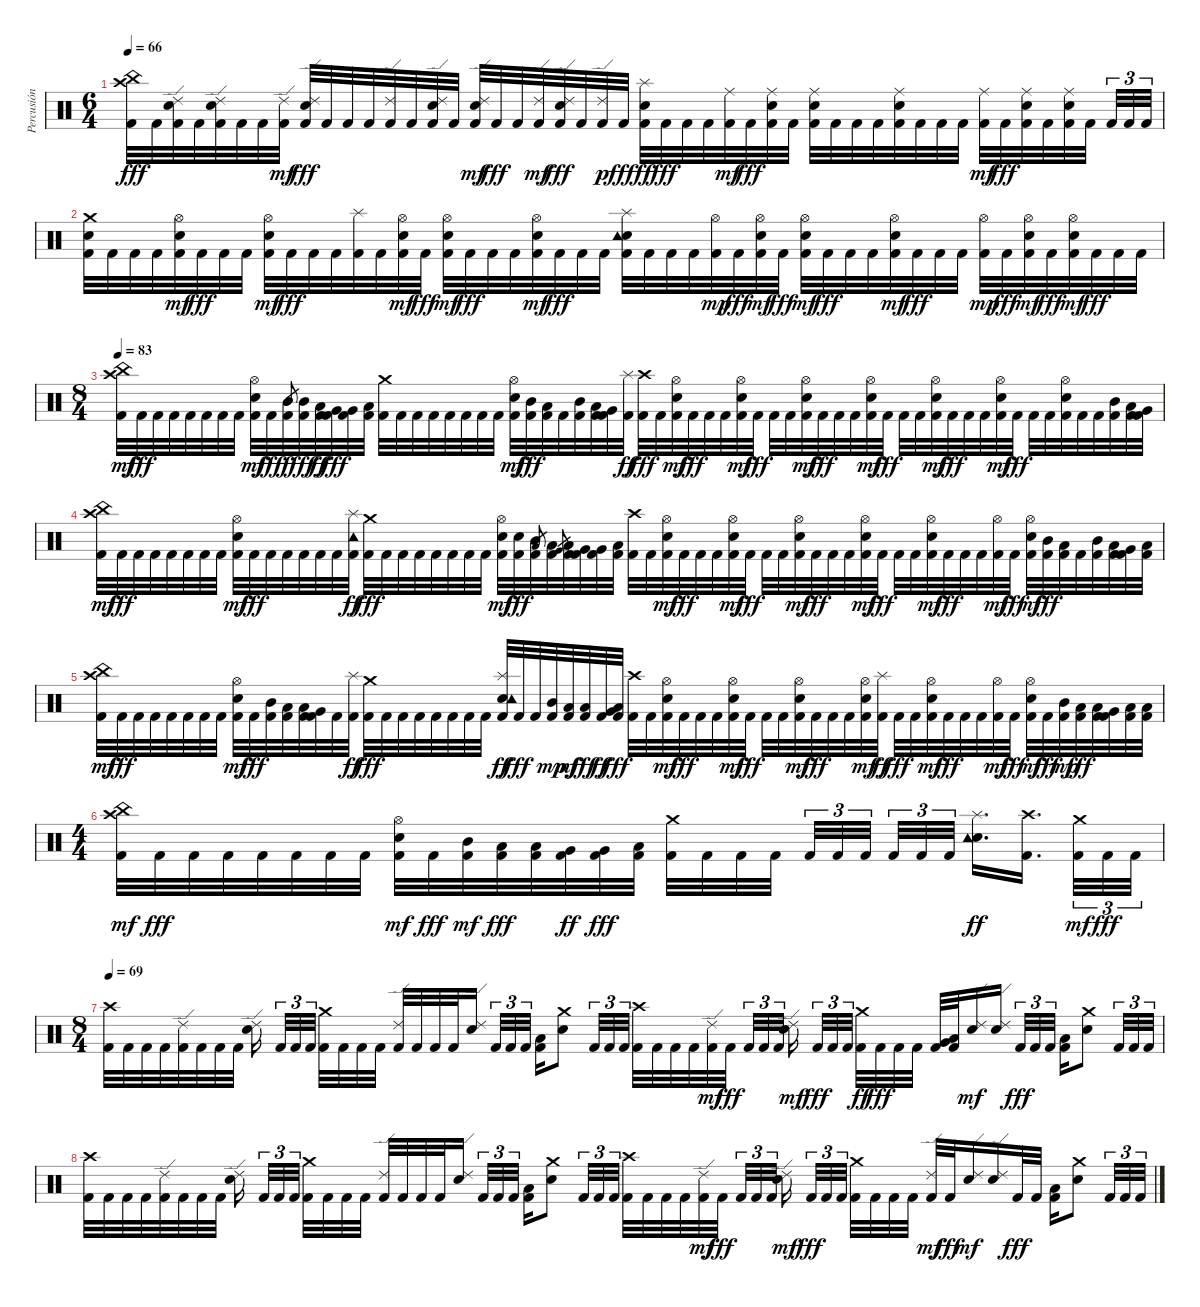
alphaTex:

\track ("Percusión" "Percusión") {instrument percussion}
\staff {score}
\articulation defaults
\ts (6 4)
\tempo 66
\clef neutral
\ks c
("Kick (hit) 2" "Crash high (hit)" "China (hit)").32{dy fff} "Kick (hit) 2".32 ("Kick (hit) 2" "Electric Snare (hit)" "Ride (edge) 2").32 "Kick (hit) 2".32 ("Kick (hit) 2" "Electric Snare (hit)" "Ride (edge) 2").32 "Kick (hit) 2".32 "Kick (hit) 2".32 ("Kick (hit) 2" "Ride (edge) 2").32{dy mf} ("Kick (hit) 2" "Electric Snare (hit)" "Ride (edge) 2").32{dy fff} "Kick (hit) 2".32 "Kick (hit) 2".32 "Kick (hit) 2".32 ("Kick (hit) 2" "Ride (edge) 2").32 "Kick (hit) 2".32 ("Kick (hit) 2" "Electric Snare (hit)" "Ride (edge) 2").32 "Kick (hit) 2".32 ("Kick (hit) 2" "Electric Snare (hit)" "Ride (edge) 2").32{dy mf} "Kick (hit) 2".32{dy fff} "Kick (hit) 2".32 ("Kick (hit) 2" "Ride (edge) 2").32{dy mf} ("Kick (hit) 2" "Electric Snare (hit)" "Ride (edge) 2").32{dy fff} "Kick (hit) 2".32 ("Kick (hit) 2" "Ride (edge) 2").32{dy p} "Kick (hit) 2".32{dy fff} ("Kick (hit) 2" "Electric Snare (hit)" "Splash (hit)").32{dy ff} "Kick (hit) 2".32{dy fff} "Kick (hit) 2".32 "Kick (hit) 2".32 ("Kick (hit) 2" "Ride (middle)").32{dy mf} "Kick (hit) 2".32{dy fff} ("Kick (hit) 2" "Electric Snare (hit)" "Ride (middle)").32 "Kick (hit) 2".32 ("Kick (hit) 2" "Electric Snare (hit)" "Ride (middle)").32 "Kick (hit) 2".32 "Kick (hit) 2".32 "Kick (hit) 2".32 ("Kick (hit) 2" "Electric Snare (hit)" "Ride (middle)").32 "Kick (hit) 2".32 "Kick (hit) 2".32 "Kick (hit) 2".32 ("Kick (hit) 2" "Ride (middle)").32{dy mf} "Kick (hit) 2".32{dy fff} ("Kick (hit) 2" "Electric Snare (hit)" "Ride (middle)").32 "Kick (hit) 2".32 ("Kick (hit) 2" "Electric Snare (hit)" "Ride (middle)").32 "Kick (hit) 2".32{beam splitsecondary} "Kick (hit) 2".32{tu (3 2)} "Kick (hit) 2".32{tu (3 2)} "Kick (hit) 2".32{tu (3 2)} |
("Kick (hit) 2" "Electric Snare (hit)" "Crash medium (hit)").32 "Kick (hit) 2".32 "Kick (hit) 2".32 "Kick (hit) 2".32 ("Kick (hit) 2" "Electric Snare (hit)" "Hi-Hat (open)").32{dy mf} "Kick (hit) 2".32{dy fff} "Kick (hit) 2".32 "Kick (hit) 2".32 ("Kick (hit) 2" "Electric Snare (hit)" "Hi-Hat (open)").32{dy mf} "Kick (hit) 2".32{dy fff} "Kick (hit) 2".32 "Kick (hit) 2".32 ("Kick (hit) 2" "Splash (hit)").32 "Kick (hit) 2".32 ("Kick (hit) 2" "Electric Snare (hit)" "Hi-Hat (open)").32{dy mf} "Kick (hit) 2".32{dy fff} ("Kick (hit) 2" "Electric Snare (hit)" "Hi-Hat (open)").32{dy mf} "Kick (hit) 2".32{dy fff} "Kick (hit) 2".32 "Kick (hit) 2".32 ("Kick (hit) 2" "Electric Snare (hit)" "Hi-Hat (open)").32{dy mf} "Kick (hit) 2".32{dy fff} "Kick (hit) 2".32 "Kick (hit) 2".32 ("Kick (hit) 2" "Electric Snare (hit)" "Splash (hit)" "Tambourine (hit)").32 "Kick (hit) 2".32 "Kick (hit) 2".32 "Kick (hit) 2".32 ("Kick (hit) 2" "Hi-Hat (open)").32{dy mp} "Kick (hit) 2".32{dy fff} ("Kick (hit) 2" "Electric Snare (hit)" "Hi-Hat (open)").32{dy mf} "Kick (hit) 2".32{dy fff} ("Kick (hit) 2" "Electric Snare (hit)" "Hi-Hat (open)").32{dy mf} "Kick (hit) 2".32{dy fff} "Kick (hit) 2".32 "Kick (hit) 2".32 ("Kick (hit) 2" "Electric Snare (hit)" "Hi-Hat (open)").32{dy mf} "Kick (hit) 2".32{dy fff} "Kick (hit) 2".32 "Kick (hit) 2".32 ("Kick (hit) 2" "Hi-Hat (open)").32{dy mp} "Kick (hit) 2".32{dy fff} ("Kick (hit) 2" "Electric Snare (hit)" "Hi-Hat (open)").32{dy mf} "Kick (hit) 2".32{dy fff} ("Kick (hit) 2" "Electric Snare (hit)" "Hi-Hat (open)").32{dy mf} "Kick (hit) 2".32{dy fff} "Kick (hit) 2".32 "Kick (hit) 2".32 |
\ts (8 4)
\tempo 83
("Kick (hit) 2" "Crash high (hit)" "China (hit)").32{dy mf} "Kick (hit) 2".32{dy fff} "Kick (hit) 2".32 "Kick (hit) 2".32 "Kick (hit) 2".32 "Kick (hit) 2".32 "Kick (hit) 2".32 "Kick (hit) 2".32 ("Kick (hit) 2" "Electric Snare (hit)" "Hi-Hat (open)").32{dy mf} "Kick (hit) 2".32{dy fff} ("Kick (hit) 2" "Mid Tom (hit)").32 "Mid Tom (hit)".8{gr dy f} ("Kick (hit) 2" "Mid Tom (hit)").32{dy fff} ("Kick (hit) 2" "Low Tom (hit)").32{dy ff} ("Kick (hit) 2" "Very Low Tom (hit)").32{dy fff} ("Kick (hit) 2" "Very Low Tom (hit)").32 ("Kick (hit) 2" "Low Floor Tom (hit)").32 ("Kick (hit) 2" "Crash medium (hit)").32 "Kick (hit) 2".32 "Kick (hit) 2".32 "Kick (hit) 2".32 "Kick (hit) 2".32 "Kick (hit) 2".32 "Kick (hit) 2".32 "Kick (hit) 2".32 ("Kick (hit) 2" "Electric Snare (hit)" "Hi-Hat (open)").32{dy mf} ("Kick (hit) 2" "Mid Tom (hit)").32{dy fff} ("Kick (hit) 2" "Low Tom (hit)").32 "Kick (hit) 2".32 ("Kick (hit) 2" "Mid Tom (hit)").32 ("Kick (hit) 2" "Low Tom (hit)").32 ("Kick (hit) 2" "Very Low Tom (hit)").32 ("Kick (hit) 2" "Splash (hit)").32{dy ff} ("Kick (hit) 2" "Crash high (hit)").32{dy fff} "Kick (hit) 2".32 ("Kick (hit) 2" "Electric Snare (hit)" "Hi-Hat (open)").32{dy mf} "Kick (hit) 2".32{dy fff} "Kick (hit) 2".32 "Kick (hit) 2".32 ("Kick (hit) 2" "Electric Snare (hit)" "Hi-Hat (open)").32{dy mf} "Kick (hit) 2".32{dy fff} "Kick (hit) 2".32 "Kick (hit) 2".32 ("Kick (hit) 2" "Electric Snare (hit)" "Hi-Hat (open)").32{dy mf} "Kick (hit) 2".32{dy fff} "Kick (hit) 2".32 "Kick (hit) 2".32 ("Kick (hit) 2" "Electric Snare (hit)" "Hi-Hat (open)").32{dy mf} "Kick (hit) 2".32{dy fff} "Kick (hit) 2".32 "Kick (hit) 2".32 ("Kick (hit) 2" "Electric Snare (hit)" "Hi-Hat (open)").32{dy mf} "Kick (hit) 2".32{dy fff} "Kick (hit) 2".32 "Kick (hit) 2".32 ("Kick (hit) 2" "Electric Snare (hit)" "Hi-Hat (open)").32{dy mf} "Kick (hit) 2".32{dy fff} "Kick (hit) 2".32 "Kick (hit) 2".32 ("Kick (hit) 2" "Electric Snare (hit)" "Hi-Hat (open)").32 "Kick (hit) 2".32 "Kick (hit) 2".32 ("Kick (hit) 2" "Mid Tom (hit)").32 ("Kick (hit) 2" "Low Tom (hit)").32 ("Kick (hit) 2" "Very Low Tom (hit)").32 |
("Kick (hit) 2" "Crash high (hit)" "China (hit)").32{dy mf} "Kick (hit) 2".32{dy fff} "Kick (hit) 2".32 "Kick (hit) 2".32 "Kick (hit) 2".32 "Kick (hit) 2".32 "Kick (hit) 2".32 "Kick (hit) 2".32 ("Kick (hit) 2" "Electric Snare (hit)" "Hi-Hat (open)").32{dy mf} "Kick (hit) 2".32{dy fff} "Kick (hit) 2".32 "Kick (hit) 2".32 "Kick (hit) 2".32 "Kick (hit) 2".32 "Kick (hit) 2".32 ("Kick (hit) 2" "Splash (hit)" "Tambourine (hit)").32{dy ff} ("Kick (hit) 2" "Crash medium (hit)").32{dy fff} "Kick (hit) 2".32 "Kick (hit) 2".32 "Kick (hit) 2".32 "Kick (hit) 2".32 "Kick (hit) 2".32 "Kick (hit) 2".32 "Kick (hit) 2".32 ("Kick (hit) 2" "Electric Snare (hit)" "Hi-Hat (open)").32{dy mf} ("Kick (hit) 2" "Electric Snare (hit)").32{dy fff} ("Kick (hit) 2" "Mid Tom (hit)").32 "Low Tom (hit)".8{gr} ("Kick (hit) 2" "Low Tom (hit)").32 ("Kick (hit) 2" "Low Tom (hit)").32 "Very Low Tom (hit)".8{gr} ("Kick (hit) 2" "Very Low Tom (hit)").32 ("Kick (hit) 2" "Very Low Tom (hit)").32 ("Kick (hit) 2" "Low Floor Tom (hit)").32 ("Kick (hit) 2" "Crash high (hit)").32 "Kick (hit) 2".32 ("Kick (hit) 2" "Electric Snare (hit)" "Hi-Hat (open)").32{dy mf} "Kick (hit) 2".32{dy fff} "Kick (hit) 2".32 "Kick (hit) 2".32 ("Kick (hit) 2" "Electric Snare (hit)" "Hi-Hat (open)").32{dy mf} "Kick (hit) 2".32{dy fff} "Kick (hit) 2".32 "Kick (hit) 2".32 ("Kick (hit) 2" "Electric Snare (hit)" "Hi-Hat (open)").32{dy mf} "Kick (hit) 2".32{dy fff} "Kick (hit) 2".32 "Kick (hit) 2".32 ("Kick (hit) 2" "Electric Snare (hit)" "Hi-Hat (open)").32{dy mf} "Kick (hit) 2".32{dy fff} "Kick (hit) 2".32 "Kick (hit) 2".32 ("Kick (hit) 2" "Electric Snare (hit)" "Hi-Hat (open)").32{dy mf} "Kick (hit) 2".32{dy fff} "Kick (hit) 2".32 "Kick (hit) 2".32 ("Kick (hit) 2" "Hi-Hat (open)").32{dy mf} "Kick (hit) 2".32{dy fff} ("Kick (hit) 2" "Electric Snare (hit)" "Hi-Hat (open)").32{dy mf} ("Kick (hit) 2" "Mid Tom (hit)").32{dy fff} ("Kick (hit) 2" "Low Tom (hit)").32 "Kick (hit) 2".32 ("Kick (hit) 2" "Mid Tom (hit)").32 ("Kick (hit) 2" "Low Tom (hit)").32 ("Kick (hit) 2" "Very Low Tom (hit)").32 ("Kick (hit) 2" "Low Floor Tom (hit)").32 |
("Kick (hit) 2" "Crash high (hit)" "China (hit)").32{dy mf} "Kick (hit) 2".32{dy fff} "Kick (hit) 2".32 "Kick (hit) 2".32 "Kick (hit) 2".32 "Kick (hit) 2".32 "Kick (hit) 2".32 "Kick (hit) 2".32 ("Kick (hit) 2" "Electric Snare (hit)" "Hi-Hat (open)").32{dy mf} "Kick (hit) 2".32{dy fff} ("Kick (hit) 2" "Mid Tom (hit)").32 ("Kick (hit) 2" "Low Tom (hit)").32 ("Kick (hit) 2" "Low Tom (hit)").32 ("Kick (hit) 2" "Very Low Tom (hit)").32 "Kick (hit) 2".32 ("Kick (hit) 2" "Splash (hit)").32{dy ff} ("Kick (hit) 2" "Crash medium (hit)").32{dy fff} "Kick (hit) 2".32 "Kick (hit) 2".32 "Kick (hit) 2".32 "Kick (hit) 2".32 "Kick (hit) 2".32 "Kick (hit) 2".32 "Kick (hit) 2".32 ("Kick (hit) 2" "Electric Snare (hit)" "Splash (hit)" "Tambourine (hit)").32{dy ff} "Kick (hit) 2".32{dy fff} "Kick (hit) 2".32 ("Kick (hit) 2" "Mid Tom (hit)").32{dy mp} ("Kick (hit) 2" "Low Tom (hit)").32{dy mf} ("Kick (hit) 2" "Low Tom (hit)").32{dy fff} ("Kick (hit) 2" "Very Low Tom (hit)").32{dy ff} ("Kick (hit) 2" "Low Floor Tom (hit)").32{dy fff} ("Kick (hit) 2" "Crash high (hit)").32 "Kick (hit) 2".32 ("Kick (hit) 2" "Electric Snare (hit)" "Hi-Hat (open)").32{dy mf} "Kick (hit) 2".32{dy fff} "Kick (hit) 2".32 "Kick (hit) 2".32 ("Kick (hit) 2" "Electric Snare (hit)" "Hi-Hat (open)").32{dy mf} "Kick (hit) 2".32{dy fff} "Kick (hit) 2".32 "Kick (hit) 2".32 ("Kick (hit) 2" "Electric Snare (hit)" "Hi-Hat (open)").32{dy mf} "Kick (hit) 2".32{dy fff} "Kick (hit) 2".32 "Kick (hit) 2".32 ("Kick (hit) 2" "Electric Snare (hit)" "Hi-Hat (open)").32{dy mf} ("Kick (hit) 2" "Splash (hit)").32{dy ff} "Kick (hit) 2".32{dy fff} "Kick (hit) 2".32 ("Kick (hit) 2" "Electric Snare (hit)" "Hi-Hat (open)").32{dy mf} "Kick (hit) 2".32{dy fff} "Kick (hit) 2".32 "Kick (hit) 2".32 ("Kick (hit) 2" "Hi-Hat (open)").32{dy mf} "Kick (hit) 2".32{dy fff} ("Kick (hit) 2" "Electric Snare (hit)" "Hi-Hat (open)").32{dy mf} "Kick (hit) 2".32{dy fff} ("Kick (hit) 2" "Mid Tom (hit)").32{dy mp} ("Kick (hit) 2" "Low Tom (hit)").32{dy fff} ("Kick (hit) 2" "Low Tom (hit)").32 ("Kick (hit) 2" "Very Low Tom (hit)").32 ("Kick (hit) 2" "Low Floor Tom (hit)").32 ("Kick (hit) 2" "Low Floor Tom (hit)").32 |
\ts (4 4)
("Kick (hit) 2" "Crash high (hit)" "China (hit)").32{dy mf} "Kick (hit) 2".32{dy fff} "Kick (hit) 2".32 "Kick (hit) 2".32 "Kick (hit) 2".32 "Kick (hit) 2".32 "Kick (hit) 2".32 "Kick (hit) 2".32 ("Kick (hit) 2" "Electric Snare (hit)" "Hi-Hat (open)").32{dy mf} "Kick (hit) 2".32{dy fff} ("Kick (hit) 2" "Mid Tom (hit)").32{dy mf} ("Kick (hit) 2" "Low Tom (hit)").32{dy fff} ("Kick (hit) 2" "Low Tom (hit)").32 ("Kick (hit) 2" "Very Low Tom (hit)").32{dy ff} ("Kick (hit) 2" "Very Low Tom (hit)").32{dy fff} ("Kick (hit) 2" "Low Floor Tom (hit)").32 ("Kick (hit) 2" "Crash medium (hit)").32 "Kick (hit) 2".32 "Kick (hit) 2".32 "Kick (hit) 2".32{beam splitsecondary} "Kick (hit) 2".32{tu (3 2)} "Kick (hit) 2".32{tu (3 2)} "Kick (hit) 2".32{tu (3 2) beam splitsecondary} "Kick (hit) 2".32{tu (3 2)} "Kick (hit) 2".32{tu (3 2)} "Kick (hit) 2".32{tu (3 2)} ("Electric Snare (hit)" "Splash (hit)" "Tambourine (hit)").16{d dy ff} ("Kick (hit) 2" "Crash high (hit)").16{d beam splitsecondary} ("Kick (hit) 2" "Crash medium (hit)").32{tu (3 2) dy mf} "Kick (hit) 2".32{tu (3 2) dy fff} "Kick (hit) 2".32{tu (3 2)} |
\ts (8 4)
\tempo 69
("Kick (hit) 2" "Crash high (hit)").32 "Kick (hit) 2".32 "Kick (hit) 2".32 "Kick (hit) 2".32 ("Kick (hit) 2" "Ride (edge) 2").32 "Kick (hit) 2".32 "Kick (hit) 2".32 "Kick (hit) 2".32 ("Electric Snare (hit)" "Ride (edge) 2").16{beam splitsecondary} "Kick (hit) 2".32{tu (3 2)} "Kick (hit) 2".32{tu (3 2)} "Kick (hit) 2".32{tu (3 2) beam splitsecondary} ("Kick (hit) 2" "Crash medium (hit)").32 "Kick (hit) 2".32 "Kick (hit) 2".32 "Kick (hit) 2".32 ("Kick (hit) 2" "Ride (edge) 2").32 "Kick (hit) 2".32 "Kick (hit) 2".32 "Kick (hit) 2".32 ("Electric Snare (hit)" "Ride (edge) 2").16{beam splitsecondary} "Kick (hit) 2".32{tu (3 2)} "Kick (hit) 2".32{tu (3 2)} "Kick (hit) 2".32{tu (3 2)} ("Kick (hit) 2" "Low Floor Tom (hit)").16 ("Electric Snare (hit)" "Crash medium (hit)").8 "Kick (hit) 2".32{tu (3 2)} "Kick (hit) 2".32{tu (3 2)} "Kick (hit) 2".32{tu (3 2)} ("Kick (hit) 2" "Crash high (hit)").32 "Kick (hit) 2".32 "Kick (hit) 2".32 "Kick (hit) 2".32 ("Kick (hit) 2" "Ride (edge) 2").32{dy mf} "Kick (hit) 2".32{dy fff beam splitsecondary} "Kick (hit) 2".32{tu (3 2)} "Kick (hit) 2".32{tu (3 2)} "Kick (hit) 2".32{tu (3 2)} ("Electric Snare (hit)" "Ride (edge) 2").16{dy mf beam splitsecondary} "Kick (hit) 2".32{tu (3 2) dy fff} "Kick (hit) 2".32{tu (3 2)} "Kick (hit) 2".32{tu (3 2) beam splitsecondary} ("Kick (hit) 2" "Crash medium (hit)").32{dy ff} "Kick (hit) 2".32{dy fff} "Kick (hit) 2".32 "Kick (hit) 2".32 ("Kick (hit) 2" "Very Low Tom (hit)").32 ("Kick (hit) 2" "Low Floor Tom (hit)").32 ("Electric Snare (hit)" "Ride (edge) 2").16{dy mf} ("Electric Snare (hit)" "Ride (edge) 2").16{beam splitsecondary} "Kick (hit) 2".32{tu (3 2) dy fff} "Kick (hit) 2".32{tu (3 2)} "Kick (hit) 2".32{tu (3 2)} ("Kick (hit) 2" "Low Floor Tom (hit)").16 ("Electric Snare (hit)" "Crash medium (hit)").8 "Kick (hit) 2".32{tu (3 2)} "Kick (hit) 2".32{tu (3 2)} "Kick (hit) 2".32{tu (3 2)} |
("Kick (hit) 2" "Crash high (hit)").32 "Kick (hit) 2".32 "Kick (hit) 2".32 "Kick (hit) 2".32 ("Kick (hit) 2" "Ride (edge) 2").32 "Kick (hit) 2".32 "Kick (hit) 2".32 "Kick (hit) 2".32 ("Electric Snare (hit)" "Ride (edge) 2").16{beam splitsecondary} "Kick (hit) 2".32{tu (3 2)} "Kick (hit) 2".32{tu (3 2)} "Kick (hit) 2".32{tu (3 2) beam splitsecondary} ("Kick (hit) 2" "Crash medium (hit)").32 "Kick (hit) 2".32 "Kick (hit) 2".32 "Kick (hit) 2".32 ("Kick (hit) 2" "Ride (edge) 2").32 "Kick (hit) 2".32 "Kick (hit) 2".32 "Kick (hit) 2".32 ("Electric Snare (hit)" "Ride (edge) 2").16{beam splitsecondary} "Kick (hit) 2".32{tu (3 2)} "Kick (hit) 2".32{tu (3 2)} "Kick (hit) 2".32{tu (3 2)} ("Kick (hit) 2" "Low Floor Tom (hit)").16 ("Electric Snare (hit)" "Crash medium (hit)").8 "Kick (hit) 2".32{tu (3 2)} "Kick (hit) 2".32{tu (3 2)} "Kick (hit) 2".32{tu (3 2)} ("Kick (hit) 2" "Crash high (hit)").32 "Kick (hit) 2".32 "Kick (hit) 2".32 "Kick (hit) 2".32 ("Kick (hit) 2" "Ride (edge) 2").32{dy mf} "Kick (hit) 2".32{dy fff beam splitsecondary} "Kick (hit) 2".32{tu (3 2)} "Kick (hit) 2".32{tu (3 2)} "Kick (hit) 2".32{tu (3 2)} ("Electric Snare (hit)" "Ride (edge) 2").16{dy mf beam splitsecondary} "Kick (hit) 2".32{tu (3 2) dy fff} "Kick (hit) 2".32{tu (3 2)} "Kick (hit) 2".32{tu (3 2) beam splitsecondary} ("Kick (hit) 2" "Crash medium (hit)").32 "Kick (hit) 2".32 "Kick (hit) 2".32 "Kick (hit) 2".32 ("Kick (hit) 2" "Ride (edge) 2").32{dy mf} "Kick (hit) 2".32{dy fff} ("Electric Snare (hit)" "Ride (edge) 2").16{dy mf} ("Electric Snare (hit)" "Ride (edge) 2").16 "Kick (hit) 2".32{dy fff} "Kick (hit) 2".32 ("Kick (hit) 2" "Low Floor Tom (hit)").16 ("Electric Snare (hit)" "Crash medium (hit)").8 "Kick (hit) 2".32{tu (3 2)} "Kick (hit) 2".32{tu (3 2)} "Kick (hit) 2".32{tu (3 2)}
